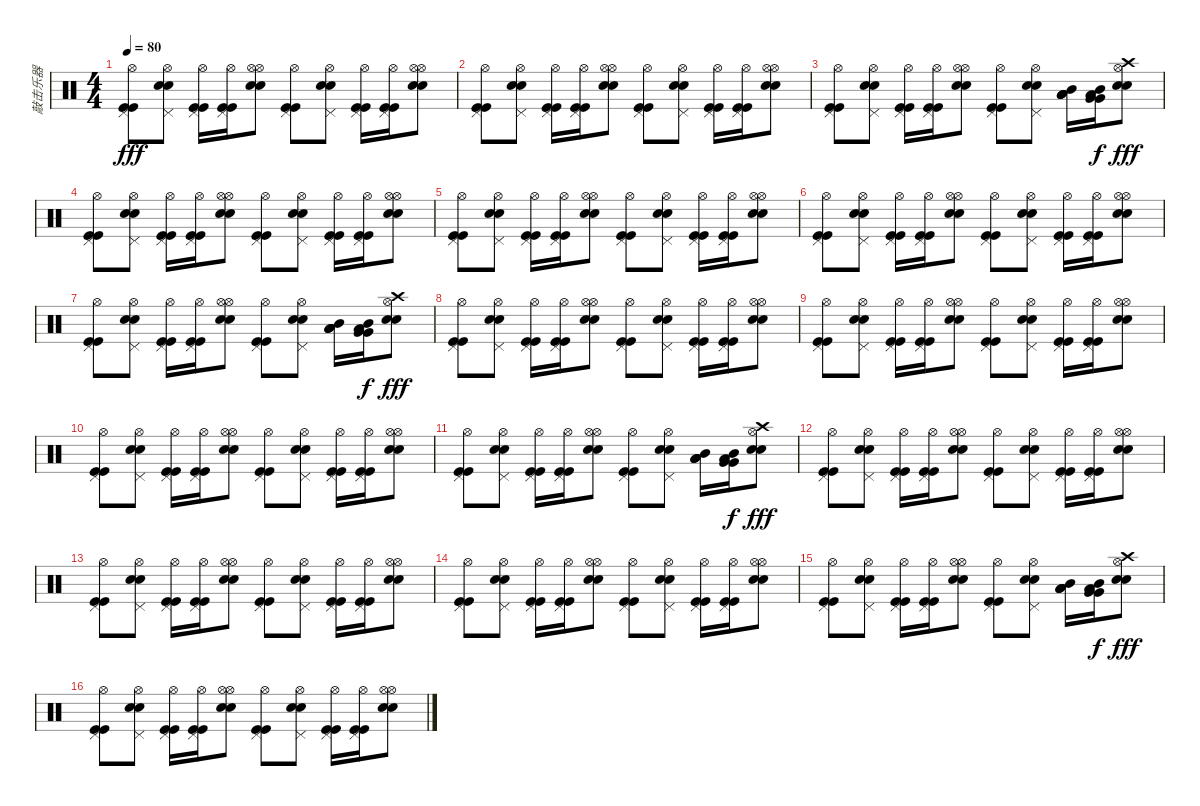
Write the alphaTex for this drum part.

\track ("敲击乐器" "敲击乐器") {instrument percussion}
\staff {score}
\articulation defaults
\ts (4 4)
\tempo 80
\clef neutral
\ks c
("Kick (hit)" "Kick (hit)" "Pedal Hi-Hat (hit)" "Hi-Hat (open)").8{dy fff} ("Electric Snare (hit)" "Electric Snare (hit)" "Pedal Hi-Hat (hit)" "Hi-Hat (open)").8 ("Kick (hit)" "Kick (hit)" "Pedal Hi-Hat (hit)" "Hi-Hat (open)").16 ("Kick (hit)" "Kick (hit)" "Pedal Hi-Hat (hit)" "Hi-Hat (open)").16 ("Electric Snare (hit)" "Electric Snare (hit)" "Hi-Hat (open)" "Hi-Hat (open)").8 ("Kick (hit)" "Kick (hit)" "Pedal Hi-Hat (hit)" "Hi-Hat (open)").8 ("Electric Snare (hit)" "Electric Snare (hit)" "Pedal Hi-Hat (hit)" "Hi-Hat (open)").8 ("Kick (hit)" "Kick (hit)" "Pedal Hi-Hat (hit)" "Hi-Hat (open)").16 ("Kick (hit)" "Kick (hit)" "Pedal Hi-Hat (hit)" "Hi-Hat (open)").16 ("Electric Snare (hit)" "Electric Snare (hit)" "Hi-Hat (open)" "Hi-Hat (open)").8 |
("Kick (hit)" "Kick (hit)" "Pedal Hi-Hat (hit)" "Hi-Hat (open)").8 ("Electric Snare (hit)" "Electric Snare (hit)" "Pedal Hi-Hat (hit)" "Hi-Hat (open)").8 ("Kick (hit)" "Kick (hit)" "Pedal Hi-Hat (hit)" "Hi-Hat (open)").16 ("Kick (hit)" "Kick (hit)" "Pedal Hi-Hat (hit)" "Hi-Hat (open)").16 ("Electric Snare (hit)" "Electric Snare (hit)" "Hi-Hat (open)" "Hi-Hat (open)").8 ("Kick (hit)" "Kick (hit)" "Pedal Hi-Hat (hit)" "Hi-Hat (open)").8 ("Electric Snare (hit)" "Electric Snare (hit)" "Pedal Hi-Hat (hit)" "Hi-Hat (open)").8 ("Kick (hit)" "Kick (hit)" "Pedal Hi-Hat (hit)" "Hi-Hat (open)").16 ("Kick (hit)" "Kick (hit)" "Pedal Hi-Hat (hit)" "Hi-Hat (open)").16 ("Electric Snare (hit)" "Electric Snare (hit)" "Hi-Hat (open)" "Hi-Hat (open)").8 |
("Kick (hit)" "Kick (hit)" "Pedal Hi-Hat (hit)" "Hi-Hat (open)").8 ("Electric Snare (hit)" "Electric Snare (hit)" "Pedal Hi-Hat (hit)" "Hi-Hat (open)").8 ("Kick (hit)" "Kick (hit)" "Pedal Hi-Hat (hit)" "Hi-Hat (open)").16 ("Kick (hit)" "Kick (hit)" "Pedal Hi-Hat (hit)" "Hi-Hat (open)").16 ("Electric Snare (hit)" "Electric Snare (hit)" "Hi-Hat (open)" "Hi-Hat (open)").8 ("Kick (hit)" "Kick (hit)" "Pedal Hi-Hat (hit)" "Hi-Hat (open)").8 ("Electric Snare (hit)" "Electric Snare (hit)" "Pedal Hi-Hat (hit)" "Hi-Hat (open)").8 ("Low Floor Tom (hit)" "Low Floor Tom (hit)" "Mid Tom (hit)" "Low Floor Tom (hit)").16 ("Very Low Tom (hit)" "Very Low Tom (hit)" "Mid Tom (hit)" "Low Floor Tom (hit)").16{dy f} ("Electric Snare (hit)" "Electric Snare (hit)" "Hi-Hat (open)" "Crash high (hit)").8{dy fff} |
("Kick (hit)" "Kick (hit)" "Pedal Hi-Hat (hit)" "Hi-Hat (open)").8 ("Electric Snare (hit)" "Electric Snare (hit)" "Pedal Hi-Hat (hit)" "Hi-Hat (open)").8 ("Kick (hit)" "Kick (hit)" "Pedal Hi-Hat (hit)" "Hi-Hat (open)").16 ("Kick (hit)" "Kick (hit)" "Pedal Hi-Hat (hit)" "Hi-Hat (open)").16 ("Electric Snare (hit)" "Electric Snare (hit)" "Hi-Hat (open)" "Hi-Hat (open)").8 ("Kick (hit)" "Kick (hit)" "Pedal Hi-Hat (hit)" "Hi-Hat (open)").8 ("Electric Snare (hit)" "Electric Snare (hit)" "Pedal Hi-Hat (hit)" "Hi-Hat (open)").8 ("Kick (hit)" "Kick (hit)" "Pedal Hi-Hat (hit)" "Hi-Hat (open)").16 ("Kick (hit)" "Kick (hit)" "Pedal Hi-Hat (hit)" "Hi-Hat (open)").16 ("Electric Snare (hit)" "Electric Snare (hit)" "Hi-Hat (open)" "Hi-Hat (open)").8 |
("Kick (hit)" "Kick (hit)" "Pedal Hi-Hat (hit)" "Hi-Hat (open)").8 ("Electric Snare (hit)" "Electric Snare (hit)" "Pedal Hi-Hat (hit)" "Hi-Hat (open)").8 ("Kick (hit)" "Kick (hit)" "Pedal Hi-Hat (hit)" "Hi-Hat (open)").16 ("Kick (hit)" "Kick (hit)" "Pedal Hi-Hat (hit)" "Hi-Hat (open)").16 ("Electric Snare (hit)" "Electric Snare (hit)" "Hi-Hat (open)" "Hi-Hat (open)").8 ("Kick (hit)" "Kick (hit)" "Pedal Hi-Hat (hit)" "Hi-Hat (open)").8 ("Electric Snare (hit)" "Electric Snare (hit)" "Pedal Hi-Hat (hit)" "Hi-Hat (open)").8 ("Kick (hit)" "Kick (hit)" "Pedal Hi-Hat (hit)" "Hi-Hat (open)").16 ("Kick (hit)" "Kick (hit)" "Pedal Hi-Hat (hit)" "Hi-Hat (open)").16 ("Electric Snare (hit)" "Electric Snare (hit)" "Hi-Hat (open)" "Hi-Hat (open)").8 |
("Kick (hit)" "Kick (hit)" "Pedal Hi-Hat (hit)" "Hi-Hat (open)").8 ("Electric Snare (hit)" "Electric Snare (hit)" "Pedal Hi-Hat (hit)" "Hi-Hat (open)").8 ("Kick (hit)" "Kick (hit)" "Pedal Hi-Hat (hit)" "Hi-Hat (open)").16 ("Kick (hit)" "Kick (hit)" "Pedal Hi-Hat (hit)" "Hi-Hat (open)").16 ("Electric Snare (hit)" "Electric Snare (hit)" "Hi-Hat (open)" "Hi-Hat (open)").8 ("Kick (hit)" "Kick (hit)" "Pedal Hi-Hat (hit)" "Hi-Hat (open)").8 ("Electric Snare (hit)" "Electric Snare (hit)" "Pedal Hi-Hat (hit)" "Hi-Hat (open)").8 ("Kick (hit)" "Kick (hit)" "Pedal Hi-Hat (hit)" "Hi-Hat (open)").16 ("Kick (hit)" "Kick (hit)" "Pedal Hi-Hat (hit)" "Hi-Hat (open)").16 ("Electric Snare (hit)" "Electric Snare (hit)" "Hi-Hat (open)" "Hi-Hat (open)").8 |
("Kick (hit)" "Kick (hit)" "Pedal Hi-Hat (hit)" "Hi-Hat (open)").8 ("Electric Snare (hit)" "Electric Snare (hit)" "Pedal Hi-Hat (hit)" "Hi-Hat (open)").8 ("Kick (hit)" "Kick (hit)" "Pedal Hi-Hat (hit)" "Hi-Hat (open)").16 ("Kick (hit)" "Kick (hit)" "Pedal Hi-Hat (hit)" "Hi-Hat (open)").16 ("Electric Snare (hit)" "Electric Snare (hit)" "Hi-Hat (open)" "Hi-Hat (open)").8 ("Kick (hit)" "Kick (hit)" "Pedal Hi-Hat (hit)" "Hi-Hat (open)").8 ("Electric Snare (hit)" "Electric Snare (hit)" "Pedal Hi-Hat (hit)" "Hi-Hat (open)").8 ("Low Floor Tom (hit)" "Low Floor Tom (hit)" "Mid Tom (hit)" "Low Floor Tom (hit)").16 ("Very Low Tom (hit)" "Very Low Tom (hit)" "Mid Tom (hit)" "Low Floor Tom (hit)").16{dy f} ("Electric Snare (hit)" "Electric Snare (hit)" "Hi-Hat (open)" "Crash high (hit)").8{dy fff} |
("Kick (hit)" "Kick (hit)" "Pedal Hi-Hat (hit)" "Hi-Hat (open)").8 ("Electric Snare (hit)" "Electric Snare (hit)" "Pedal Hi-Hat (hit)" "Hi-Hat (open)").8 ("Kick (hit)" "Kick (hit)" "Pedal Hi-Hat (hit)" "Hi-Hat (open)").16 ("Kick (hit)" "Kick (hit)" "Pedal Hi-Hat (hit)" "Hi-Hat (open)").16 ("Electric Snare (hit)" "Electric Snare (hit)" "Hi-Hat (open)" "Hi-Hat (open)").8 ("Kick (hit)" "Kick (hit)" "Pedal Hi-Hat (hit)" "Hi-Hat (open)").8 ("Electric Snare (hit)" "Electric Snare (hit)" "Pedal Hi-Hat (hit)" "Hi-Hat (open)").8 ("Kick (hit)" "Kick (hit)" "Pedal Hi-Hat (hit)" "Hi-Hat (open)").16 ("Kick (hit)" "Kick (hit)" "Pedal Hi-Hat (hit)" "Hi-Hat (open)").16 ("Electric Snare (hit)" "Electric Snare (hit)" "Hi-Hat (open)" "Hi-Hat (open)").8 |
("Kick (hit)" "Kick (hit)" "Pedal Hi-Hat (hit)" "Hi-Hat (open)").8 ("Electric Snare (hit)" "Electric Snare (hit)" "Pedal Hi-Hat (hit)" "Hi-Hat (open)").8 ("Kick (hit)" "Kick (hit)" "Pedal Hi-Hat (hit)" "Hi-Hat (open)").16 ("Kick (hit)" "Kick (hit)" "Pedal Hi-Hat (hit)" "Hi-Hat (open)").16 ("Electric Snare (hit)" "Electric Snare (hit)" "Hi-Hat (open)" "Hi-Hat (open)").8 ("Kick (hit)" "Kick (hit)" "Pedal Hi-Hat (hit)" "Hi-Hat (open)").8 ("Electric Snare (hit)" "Electric Snare (hit)" "Pedal Hi-Hat (hit)" "Hi-Hat (open)").8 ("Kick (hit)" "Kick (hit)" "Pedal Hi-Hat (hit)" "Hi-Hat (open)").16 ("Kick (hit)" "Kick (hit)" "Pedal Hi-Hat (hit)" "Hi-Hat (open)").16 ("Electric Snare (hit)" "Electric Snare (hit)" "Hi-Hat (open)" "Hi-Hat (open)").8 |
("Kick (hit)" "Kick (hit)" "Pedal Hi-Hat (hit)" "Hi-Hat (open)").8 ("Electric Snare (hit)" "Electric Snare (hit)" "Pedal Hi-Hat (hit)" "Hi-Hat (open)").8 ("Kick (hit)" "Kick (hit)" "Pedal Hi-Hat (hit)" "Hi-Hat (open)").16 ("Kick (hit)" "Kick (hit)" "Pedal Hi-Hat (hit)" "Hi-Hat (open)").16 ("Electric Snare (hit)" "Electric Snare (hit)" "Hi-Hat (open)" "Hi-Hat (open)").8 ("Kick (hit)" "Kick (hit)" "Pedal Hi-Hat (hit)" "Hi-Hat (open)").8 ("Electric Snare (hit)" "Electric Snare (hit)" "Pedal Hi-Hat (hit)" "Hi-Hat (open)").8 ("Kick (hit)" "Kick (hit)" "Pedal Hi-Hat (hit)" "Hi-Hat (open)").16 ("Kick (hit)" "Kick (hit)" "Pedal Hi-Hat (hit)" "Hi-Hat (open)").16 ("Electric Snare (hit)" "Electric Snare (hit)" "Hi-Hat (open)" "Hi-Hat (open)").8 |
("Kick (hit)" "Kick (hit)" "Pedal Hi-Hat (hit)" "Hi-Hat (open)").8 ("Electric Snare (hit)" "Electric Snare (hit)" "Pedal Hi-Hat (hit)" "Hi-Hat (open)").8 ("Kick (hit)" "Kick (hit)" "Pedal Hi-Hat (hit)" "Hi-Hat (open)").16 ("Kick (hit)" "Kick (hit)" "Pedal Hi-Hat (hit)" "Hi-Hat (open)").16 ("Electric Snare (hit)" "Electric Snare (hit)" "Hi-Hat (open)" "Hi-Hat (open)").8 ("Kick (hit)" "Kick (hit)" "Pedal Hi-Hat (hit)" "Hi-Hat (open)").8 ("Electric Snare (hit)" "Electric Snare (hit)" "Pedal Hi-Hat (hit)" "Hi-Hat (open)").8 ("Low Floor Tom (hit)" "Low Floor Tom (hit)" "Mid Tom (hit)" "Low Floor Tom (hit)").16 ("Very Low Tom (hit)" "Very Low Tom (hit)" "Mid Tom (hit)" "Low Floor Tom (hit)").16{dy f} ("Electric Snare (hit)" "Electric Snare (hit)" "Hi-Hat (open)" "Crash high (hit)").8{dy fff} |
("Kick (hit)" "Kick (hit)" "Pedal Hi-Hat (hit)" "Hi-Hat (open)").8 ("Electric Snare (hit)" "Electric Snare (hit)" "Pedal Hi-Hat (hit)" "Hi-Hat (open)").8 ("Kick (hit)" "Kick (hit)" "Pedal Hi-Hat (hit)" "Hi-Hat (open)").16 ("Kick (hit)" "Kick (hit)" "Pedal Hi-Hat (hit)" "Hi-Hat (open)").16 ("Electric Snare (hit)" "Electric Snare (hit)" "Hi-Hat (open)" "Hi-Hat (open)").8 ("Kick (hit)" "Kick (hit)" "Pedal Hi-Hat (hit)" "Hi-Hat (open)").8 ("Electric Snare (hit)" "Electric Snare (hit)" "Pedal Hi-Hat (hit)" "Hi-Hat (open)").8 ("Kick (hit)" "Kick (hit)" "Pedal Hi-Hat (hit)" "Hi-Hat (open)").16 ("Kick (hit)" "Kick (hit)" "Pedal Hi-Hat (hit)" "Hi-Hat (open)").16 ("Electric Snare (hit)" "Electric Snare (hit)" "Hi-Hat (open)" "Hi-Hat (open)").8 |
("Kick (hit)" "Kick (hit)" "Pedal Hi-Hat (hit)" "Hi-Hat (open)").8 ("Electric Snare (hit)" "Electric Snare (hit)" "Pedal Hi-Hat (hit)" "Hi-Hat (open)").8 ("Kick (hit)" "Kick (hit)" "Pedal Hi-Hat (hit)" "Hi-Hat (open)").16 ("Kick (hit)" "Kick (hit)" "Pedal Hi-Hat (hit)" "Hi-Hat (open)").16 ("Electric Snare (hit)" "Electric Snare (hit)" "Hi-Hat (open)" "Hi-Hat (open)").8 ("Kick (hit)" "Kick (hit)" "Pedal Hi-Hat (hit)" "Hi-Hat (open)").8 ("Electric Snare (hit)" "Electric Snare (hit)" "Pedal Hi-Hat (hit)" "Hi-Hat (open)").8 ("Kick (hit)" "Kick (hit)" "Pedal Hi-Hat (hit)" "Hi-Hat (open)").16 ("Kick (hit)" "Kick (hit)" "Pedal Hi-Hat (hit)" "Hi-Hat (open)").16 ("Electric Snare (hit)" "Electric Snare (hit)" "Hi-Hat (open)" "Hi-Hat (open)").8 |
("Kick (hit)" "Kick (hit)" "Pedal Hi-Hat (hit)" "Hi-Hat (open)").8 ("Electric Snare (hit)" "Electric Snare (hit)" "Pedal Hi-Hat (hit)" "Hi-Hat (open)").8 ("Kick (hit)" "Kick (hit)" "Pedal Hi-Hat (hit)" "Hi-Hat (open)").16 ("Kick (hit)" "Kick (hit)" "Pedal Hi-Hat (hit)" "Hi-Hat (open)").16 ("Electric Snare (hit)" "Electric Snare (hit)" "Hi-Hat (open)" "Hi-Hat (open)").8 ("Kick (hit)" "Kick (hit)" "Pedal Hi-Hat (hit)" "Hi-Hat (open)").8 ("Electric Snare (hit)" "Electric Snare (hit)" "Pedal Hi-Hat (hit)" "Hi-Hat (open)").8 ("Kick (hit)" "Kick (hit)" "Pedal Hi-Hat (hit)" "Hi-Hat (open)").16 ("Kick (hit)" "Kick (hit)" "Pedal Hi-Hat (hit)" "Hi-Hat (open)").16 ("Electric Snare (hit)" "Electric Snare (hit)" "Hi-Hat (open)" "Hi-Hat (open)").8 |
("Kick (hit)" "Kick (hit)" "Pedal Hi-Hat (hit)" "Hi-Hat (open)").8 ("Electric Snare (hit)" "Electric Snare (hit)" "Pedal Hi-Hat (hit)" "Hi-Hat (open)").8 ("Kick (hit)" "Kick (hit)" "Pedal Hi-Hat (hit)" "Hi-Hat (open)").16 ("Kick (hit)" "Kick (hit)" "Pedal Hi-Hat (hit)" "Hi-Hat (open)").16 ("Electric Snare (hit)" "Electric Snare (hit)" "Hi-Hat (open)" "Hi-Hat (open)").8 ("Kick (hit)" "Kick (hit)" "Pedal Hi-Hat (hit)" "Hi-Hat (open)").8 ("Electric Snare (hit)" "Electric Snare (hit)" "Pedal Hi-Hat (hit)" "Hi-Hat (open)").8 ("Low Floor Tom (hit)" "Low Floor Tom (hit)" "Mid Tom (hit)" "Low Floor Tom (hit)").16 ("Very Low Tom (hit)" "Very Low Tom (hit)" "Mid Tom (hit)" "Low Floor Tom (hit)").16{dy f} ("Electric Snare (hit)" "Electric Snare (hit)" "Hi-Hat (open)" "Crash high (hit)").8{dy fff} |
("Kick (hit)" "Kick (hit)" "Pedal Hi-Hat (hit)" "Hi-Hat (open)").8 ("Electric Snare (hit)" "Electric Snare (hit)" "Pedal Hi-Hat (hit)" "Hi-Hat (open)").8 ("Kick (hit)" "Kick (hit)" "Pedal Hi-Hat (hit)" "Hi-Hat (open)").16 ("Kick (hit)" "Kick (hit)" "Pedal Hi-Hat (hit)" "Hi-Hat (open)").16 ("Electric Snare (hit)" "Electric Snare (hit)" "Hi-Hat (open)" "Hi-Hat (open)").8 ("Kick (hit)" "Kick (hit)" "Pedal Hi-Hat (hit)" "Hi-Hat (open)").8 ("Electric Snare (hit)" "Electric Snare (hit)" "Pedal Hi-Hat (hit)" "Hi-Hat (open)").8 ("Kick (hit)" "Kick (hit)" "Pedal Hi-Hat (hit)" "Hi-Hat (open)").16 ("Kick (hit)" "Kick (hit)" "Pedal Hi-Hat (hit)" "Hi-Hat (open)").16 ("Electric Snare (hit)" "Electric Snare (hit)" "Hi-Hat (open)" "Hi-Hat (open)").8
